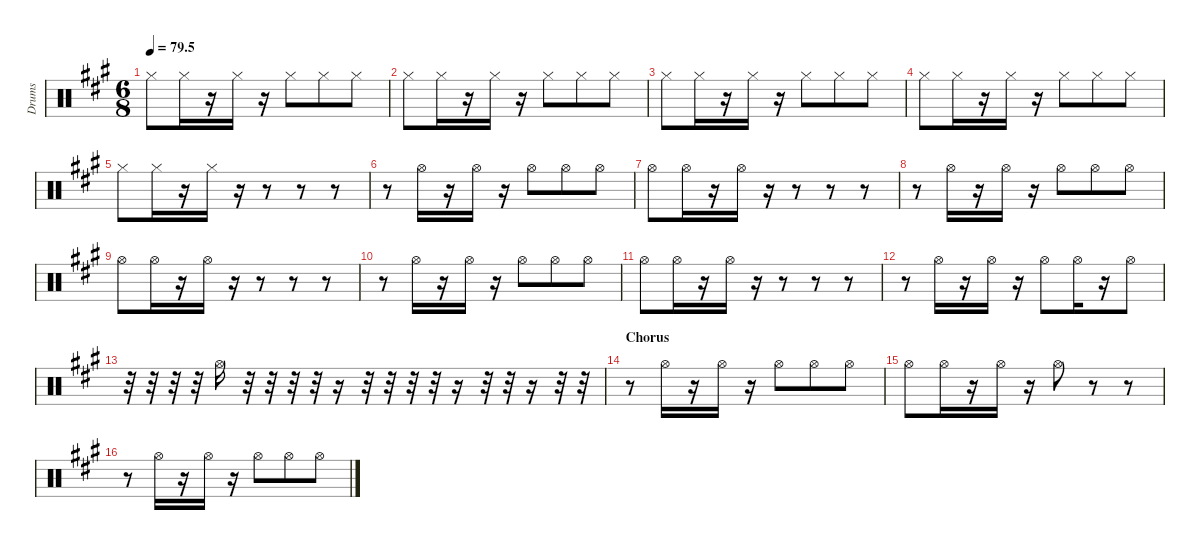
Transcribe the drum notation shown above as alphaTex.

\defaultSystemsLayout 4
\hideDynamics
\bracketExtendMode nobrackets
\otherSystemsTrackNameOrientation horizontal
\track ("Hihat" "Drums") {instrument percussion}
\staff {score}
\articulation defaults
\ts (6 8)
\tempo
79.5
\accidentals auto
\clef neutral
\ottava regular
\simile none
\scale
0.333333
\ks a "Hi-Hat (closed)"{acc forcenatural}.8{dy f} "Hi-Hat (closed)"{acc forcenatural}.16
r.16 "Hi-Hat (closed)"{acc forcenatural}.16 r.16 "Hi-Hat (closed)"{acc forcenatural}.8 "Hi-Hat (closed)"{acc forcenatural}.8 "Hi-Hat (closed)"{acc forcenatural}.8 |
\scale
0.333333 "Hi-Hat (closed)"{acc forcenatural}.8 "Hi-Hat (closed)"{acc forcenatural}.16 r.16 "Hi-Hat (closed)"{acc forcenatural}.16 r.16 "Hi-Hat (closed)"{acc forcenatural}.8 "Hi-Hat (closed)"{acc forcenatural}.8 "Hi-Hat (closed)"{acc forcenatural}.8 |
\scale
0.333333 "Hi-Hat (closed)"{acc forcenatural}.8 "Hi-Hat (closed)"{acc forcenatural}.16 r.16 "Hi-Hat (closed)"{acc forcenatural}.16 r.16 "Hi-Hat (closed)"{acc forcenatural}.8 "Hi-Hat (closed)"{acc forcenatural}.8 "Hi-Hat (closed)"{acc forcenatural}.8 |
\scale
0.333333 "Hi-Hat (closed)"{acc forcenatural}.8 "Hi-Hat (closed)"{acc forcenatural}.16 r.16 "Hi-Hat (closed)"{acc forcenatural}.16 r.16 "Hi-Hat (closed)"{acc forcenatural}.8 "Hi-Hat (closed)"{acc forcenatural}.8 "Hi-Hat (closed)"{acc forcenatural}.8 |
\scale
0.333333 "Hi-Hat (closed)"{acc forcenatural}.8 "Hi-Hat (closed)"{acc forcenatural}.16 r.16 "Hi-Hat (closed)"{acc forcenatural}.16 r.16 r.8 r.8 r.8 |
\scale
0.333333 r.8 "Hi-Hat (open)"{acc forcenatural}.16 r.16 "Hi-Hat (open)"{acc forcenatural}.16 r.16 "Hi-Hat (open)"{acc forcenatural}.8 "Hi-Hat (open)"{acc forcenatural}.8 "Hi-Hat (open)"{acc forcenatural}.8 |
\scale
0.333333 "Hi-Hat (open)"{acc forcenatural}.8 "Hi-Hat (open)"{acc forcenatural}.16 r.16 "Hi-Hat (open)"{acc forcenatural}.16 r.16 r.8 r.8 r.8 |
\scale
0.333333 r.8 "Hi-Hat (open)"{acc forcenatural}.16 r.16 "Hi-Hat (open)"{acc forcenatural}.16 r.16 "Hi-Hat (open)"{acc forcenatural}.8 "Hi-Hat (open)"{acc forcenatural}.8 "Hi-Hat (open)"{acc forcenatural}.8 |
\scale
0.333333 "Hi-Hat (open)"{acc forcenatural}.8 "Hi-Hat (open)"{acc forcenatural}.16 r.16 "Hi-Hat (open)"{acc forcenatural}.16 r.16 r.8 r.8 r.8 |
\scale
0.333333 r.8 "Hi-Hat (open)"{acc forcenatural}.16 r.16 "Hi-Hat (open)"{acc forcenatural}.16 r.16 "Hi-Hat (open)"{acc forcenatural}.8 "Hi-Hat (open)"{acc forcenatural}.8 "Hi-Hat (open)"{acc forcenatural}.8 |
\scale
0.333333 "Hi-Hat (open)"{acc forcenatural}.8 "Hi-Hat (open)"{acc forcenatural}.16 r.16 "Hi-Hat (open)"{acc forcenatural}.16 r.16 r.8 r.8 r.8 |
\scale
0.333333 r.8 "Hi-Hat (open)"{acc forcenatural}.16 r.16 "Hi-Hat (open)"{acc forcenatural}.16 r.16 "Hi-Hat (open)"{acc forcenatural}.8 "Hi-Hat (open)"{acc forcenatural}.16 r.16 "Hi-Hat (open)"{acc forcenatural}.8 |
\scale
0.333333 r.32 r.32 r.32 r.32 "Hi-Hat (open)"{acc forcenatural}.16 r.32 r.32 r.32 r.32 r.16 r.32 r.32 r.32 r.32 r.16 r.32 r.32 r.16 r.32 r.32 |
\section ("" "Chorus")
\scale
0.333333 r.8 "Hi-Hat (open)"{acc forcenatural}.16 r.16 "Hi-Hat (open)"{acc forcenatural}.16 r.16 "Hi-Hat (open)"{acc forcenatural}.8 "Hi-Hat (open)"{acc forcenatural}.8 "Hi-Hat (open)"{acc forcenatural}.8 |
\scale
0.333333 "Hi-Hat (open)"{acc forcenatural}.8 "Hi-Hat (open)"{acc forcenatural}.16 r.16 "Hi-Hat (open)"{acc forcenatural}.16 r.16 "Hi-Hat (open)"{acc forcenatural}.8 r.8 r.8 |
\scale
0.333333 r.8 "Hi-Hat (open)"{acc forcenatural}.16 r.16 "Hi-Hat (open)"{acc forcenatural}.16 r.16 "Hi-Hat (open)"{acc forcenatural}.8 "Hi-Hat (open)"{acc forcenatural}.8 "Hi-Hat (open)"{acc forcenatural}.8
